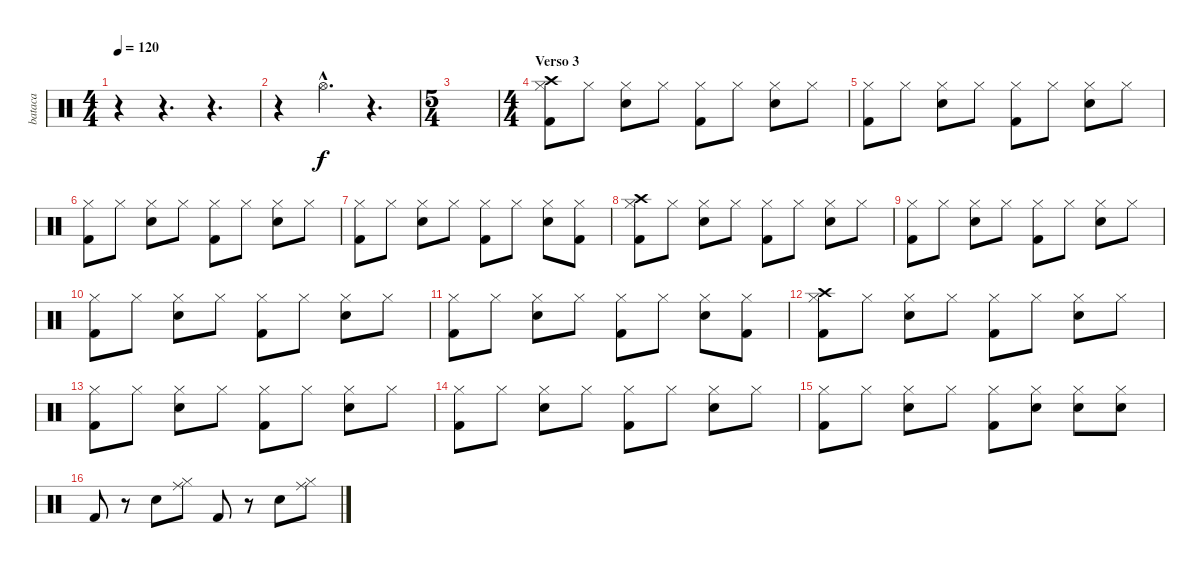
\track ("bataca" "bataca") {instrument percussion}
\staff {score}
\articulation defaults
\ts (4 4)
\tempo 120
\clef neutral
\ks c
r.4{dy f} r.4{d} r.4{d} |
r.4 "Hi-Hat (open)"{hac}.4{d} r.4{d} |
\ts (5 4)
|
\ts (4 4)
\section ("" "Verso 3")
("Hi-Hat (closed)" "Kick (hit) 2" "Crash high (hit)").8 "Hi-Hat (closed)".8 ("Hi-Hat (closed)" "Electric Snare (hit)").8 "Hi-Hat (closed)".8 ("Hi-Hat (closed)" "Kick (hit) 2").8 "Hi-Hat (closed)".8 ("Hi-Hat (closed)" "Electric Snare (hit)").8 "Hi-Hat (closed)".8 |
("Hi-Hat (closed)" "Kick (hit) 2").8 "Hi-Hat (closed)".8 ("Hi-Hat (closed)" "Electric Snare (hit)").8 "Hi-Hat (closed)".8 ("Hi-Hat (closed)" "Kick (hit) 2").8 "Hi-Hat (closed)".8 ("Hi-Hat (closed)" "Electric Snare (hit)").8 "Hi-Hat (closed)".8 |
("Hi-Hat (closed)" "Kick (hit) 2").8 "Hi-Hat (closed)".8 ("Hi-Hat (closed)" "Electric Snare (hit)").8 "Hi-Hat (closed)".8 ("Hi-Hat (closed)" "Kick (hit) 2").8 "Hi-Hat (closed)".8 ("Hi-Hat (closed)" "Electric Snare (hit)").8 "Hi-Hat (closed)".8 |
("Hi-Hat (closed)" "Kick (hit) 2").8 "Hi-Hat (closed)".8 ("Hi-Hat (closed)" "Electric Snare (hit)").8 "Hi-Hat (closed)".8 ("Hi-Hat (closed)" "Kick (hit) 2").8 "Hi-Hat (closed)".8 ("Hi-Hat (closed)" "Electric Snare (hit)").8 ("Hi-Hat (closed)" "Kick (hit) 2").8 |
("Hi-Hat (closed)" "Kick (hit) 2" "Crash high (hit)").8 "Hi-Hat (closed)".8 ("Hi-Hat (closed)" "Electric Snare (hit)").8 "Hi-Hat (closed)".8 ("Hi-Hat (closed)" "Kick (hit) 2").8 "Hi-Hat (closed)".8 ("Hi-Hat (closed)" "Electric Snare (hit)").8 "Hi-Hat (closed)".8 |
("Hi-Hat (closed)" "Kick (hit) 2").8 "Hi-Hat (closed)".8 ("Hi-Hat (closed)" "Electric Snare (hit)").8 "Hi-Hat (closed)".8 ("Hi-Hat (closed)" "Kick (hit) 2").8 "Hi-Hat (closed)".8 ("Hi-Hat (closed)" "Electric Snare (hit)").8 "Hi-Hat (closed)".8 |
("Hi-Hat (closed)" "Kick (hit) 2").8 "Hi-Hat (closed)".8 ("Hi-Hat (closed)" "Electric Snare (hit)").8 "Hi-Hat (closed)".8 ("Hi-Hat (closed)" "Kick (hit) 2").8 "Hi-Hat (closed)".8 ("Hi-Hat (closed)" "Electric Snare (hit)").8 "Hi-Hat (closed)".8 |
("Hi-Hat (closed)" "Kick (hit) 2").8 "Hi-Hat (closed)".8 ("Hi-Hat (closed)" "Electric Snare (hit)").8 "Hi-Hat (closed)".8 ("Hi-Hat (closed)" "Kick (hit) 2").8 "Hi-Hat (closed)".8 ("Hi-Hat (closed)" "Electric Snare (hit)").8 ("Hi-Hat (closed)" "Kick (hit) 2").8 |
("Hi-Hat (closed)" "Kick (hit) 2" "Crash high (hit)").8 "Hi-Hat (closed)".8 ("Hi-Hat (closed)" "Electric Snare (hit)").8 "Hi-Hat (closed)".8 ("Hi-Hat (closed)" "Kick (hit) 2").8 "Hi-Hat (closed)".8 ("Hi-Hat (closed)" "Electric Snare (hit)").8 "Hi-Hat (closed)".8 |
("Hi-Hat (closed)" "Kick (hit) 2").8 "Hi-Hat (closed)".8 ("Hi-Hat (closed)" "Electric Snare (hit)").8 "Hi-Hat (closed)".8 ("Hi-Hat (closed)" "Kick (hit) 2").8 "Hi-Hat (closed)".8 ("Hi-Hat (closed)" "Electric Snare (hit)").8 "Hi-Hat (closed)".8 |
("Hi-Hat (closed)" "Kick (hit) 2").8 "Hi-Hat (closed)".8 ("Hi-Hat (closed)" "Electric Snare (hit)").8 "Hi-Hat (closed)".8 ("Hi-Hat (closed)" "Kick (hit) 2").8 "Hi-Hat (closed)".8 ("Hi-Hat (closed)" "Electric Snare (hit)").8 "Hi-Hat (closed)".8 |
("Hi-Hat (closed)" "Kick (hit) 2").8 "Hi-Hat (closed)".8 ("Hi-Hat (closed)" "Electric Snare (hit)").8 "Hi-Hat (closed)".8 ("Hi-Hat (closed)" "Kick (hit) 2").8 ("Hi-Hat (closed)" "Electric Snare (hit)").8 ("Hi-Hat (closed)" "Electric Snare (hit)").8 ("Hi-Hat (closed)" "Electric Snare (hit)").8 |
"Kick (hit) 2".8 r.8 "Electric Snare (hit)".8 ("Ride (middle)" "Hi-Hat (closed)").8 "Kick (hit) 2".8 r.8 "Electric Snare (hit)".8 ("Ride (middle)" "Hi-Hat (closed)").8
